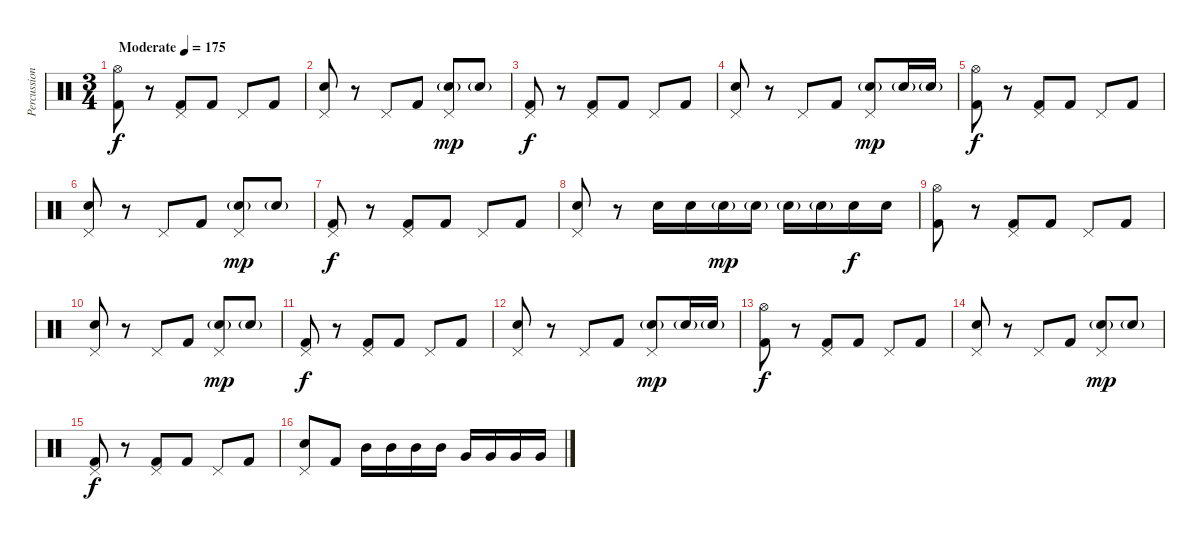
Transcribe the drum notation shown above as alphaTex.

\track ("Percussion" "Percussion") {instrument percussion}
\staff {score}
\articulation defaults
\ts (3 4)
\tempo (175 "Moderate")
\clef neutral
\ks c
("Hi-Hat (open)" "Kick (hit) 2").8{dy f} r.8 ("Pedal Hi-Hat (hit)" "Kick (hit) 2").8 "Kick (hit) 2".8 "Pedal Hi-Hat (hit)".8 "Kick (hit) 2".8 |
("Pedal Hi-Hat (hit)" "Electric Snare (hit)").8 r.8 "Pedal Hi-Hat (hit)".8 "Kick (hit) 2".8 ("Pedal Hi-Hat (hit)" "Electric Snare (hit)"{g}).8{dy mp} "Electric Snare (hit)"{g}.8 |
("Pedal Hi-Hat (hit)" "Kick (hit) 2").8{dy f} r.8 ("Pedal Hi-Hat (hit)" "Kick (hit) 2").8 "Kick (hit) 2".8 "Pedal Hi-Hat (hit)".8 "Kick (hit) 2".8 |
("Pedal Hi-Hat (hit)" "Electric Snare (hit)").8 r.8 "Pedal Hi-Hat (hit)".8 "Kick (hit) 2".8 ("Pedal Hi-Hat (hit)" "Electric Snare (hit)"{g}).8{dy mp} "Electric Snare (hit)"{g}.16 "Electric Snare (hit)"{g}.16 |
("Hi-Hat (open)" "Kick (hit) 2").8{dy f} r.8 ("Pedal Hi-Hat (hit)" "Kick (hit) 2").8 "Kick (hit) 2".8 "Pedal Hi-Hat (hit)".8 "Kick (hit) 2".8 |
("Pedal Hi-Hat (hit)" "Electric Snare (hit)").8 r.8 "Pedal Hi-Hat (hit)".8 "Kick (hit) 2".8 ("Pedal Hi-Hat (hit)" "Electric Snare (hit)"{g}).8{dy mp} "Electric Snare (hit)"{g}.8 |
("Pedal Hi-Hat (hit)" "Kick (hit) 2").8{dy f} r.8 ("Pedal Hi-Hat (hit)" "Kick (hit) 2").8 "Kick (hit) 2".8 "Pedal Hi-Hat (hit)".8 "Kick (hit) 2".8 |
("Pedal Hi-Hat (hit)" "Electric Snare (hit)").8 r.8 "Electric Snare (hit)".16 "Electric Snare (hit)".16 "Electric Snare (hit)"{g}.16{dy mp} "Electric Snare (hit)"{g}.16 "Electric Snare (hit)"{g}.16 "Electric Snare (hit)"{g}.16 "Electric Snare (hit)".16{dy f} "Electric Snare (hit)".16 |
("Hi-Hat (open)" "Kick (hit) 2").8 r.8 ("Pedal Hi-Hat (hit)" "Kick (hit) 2").8 "Kick (hit) 2".8 "Pedal Hi-Hat (hit)".8 "Kick (hit) 2".8 |
("Pedal Hi-Hat (hit)" "Electric Snare (hit)").8 r.8 "Pedal Hi-Hat (hit)".8 "Kick (hit) 2".8 ("Pedal Hi-Hat (hit)" "Electric Snare (hit)"{g}).8{dy mp} "Electric Snare (hit)"{g}.8 |
("Pedal Hi-Hat (hit)" "Kick (hit) 2").8{dy f} r.8 ("Pedal Hi-Hat (hit)" "Kick (hit) 2").8 "Kick (hit) 2".8 "Pedal Hi-Hat (hit)".8 "Kick (hit) 2".8 |
("Pedal Hi-Hat (hit)" "Electric Snare (hit)").8 r.8 "Pedal Hi-Hat (hit)".8 "Kick (hit) 2".8 ("Pedal Hi-Hat (hit)" "Electric Snare (hit)"{g}).8{dy mp} "Electric Snare (hit)"{g}.16 "Electric Snare (hit)"{g}.16 |
("Hi-Hat (open)" "Kick (hit) 2").8{dy f} r.8 ("Pedal Hi-Hat (hit)" "Kick (hit) 2").8 "Kick (hit) 2".8 "Pedal Hi-Hat (hit)".8 "Kick (hit) 2".8 |
("Pedal Hi-Hat (hit)" "Electric Snare (hit)").8 r.8 "Pedal Hi-Hat (hit)".8 "Kick (hit) 2".8 ("Pedal Hi-Hat (hit)" "Electric Snare (hit)"{g}).8{dy mp} "Electric Snare (hit)"{g}.8 |
("Pedal Hi-Hat (hit)" "Kick (hit) 2").8{dy f} r.8 ("Pedal Hi-Hat (hit)" "Kick (hit) 2").8 "Kick (hit) 2".8 "Pedal Hi-Hat (hit)".8 "Kick (hit) 2".8 |
("Pedal Hi-Hat (hit)" "Electric Snare (hit)").8 "Kick (hit) 2".8 "Mid Tom (hit)".16 "Mid Tom (hit)".16 "Mid Tom (hit)".16 "Mid Tom (hit)".16 "Very Low Tom (hit)".16 "Very Low Tom (hit)".16 "Very Low Tom (hit)".16 "Very Low Tom (hit)".16
